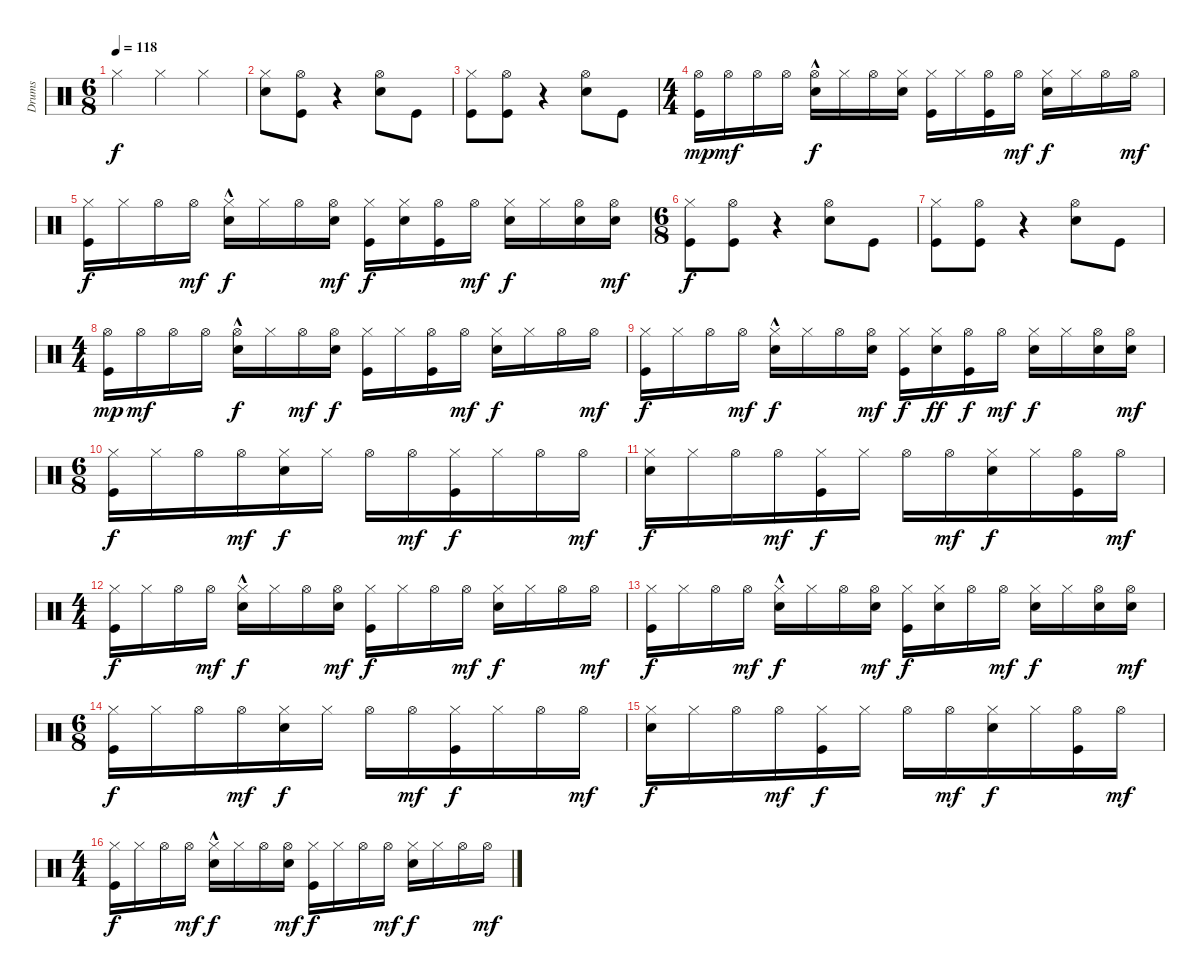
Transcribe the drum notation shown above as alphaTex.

\track ("Drums" "Drums") {instrument percussion}
\staff {score}
\articulation defaults
\ts (6 8)
\tempo 118
\clef neutral
\ks c "Hi-Hat (closed)".4{dy f} "Hi-Hat (closed)".4 "Hi-Hat (closed)".4
|
("Electric Snare (hit)" "Hi-Hat (closed)").8 ("Hi-Hat (open)" "Kick (hit)").8 r.4 ("Hi-Hat (open)" "Electric Snare (hit)").8 "Kick (hit)".8 |
("Hi-Hat (closed)" "Kick (hit)").8 ("Hi-Hat (open)" "Kick (hit)").8 r.4 ("Electric Snare (hit)" "Hi-Hat (open)").8 "Kick (hit)".8 |
\ts (4 4)
("Kick (hit)" "Hi-Hat (open)").16{dy mp} "Hi-Hat (open)".16{dy mf} "Hi-Hat (open)".16 "Hi-Hat (open)".16 ("Electric Snare (hit)"{hac} "Hi-Hat (open)").16{dy f} "Hi-Hat (closed)".16 "Hi-Hat (open)".16 ("Electric Snare (hit)" "Hi-Hat (closed)").16 ("Hi-Hat (closed)" "Kick (hit)").16 "Hi-Hat (closed)".16 ("Hi-Hat (open)" "Kick (hit)").16 "Hi-Hat (open)".16{dy mf} ("Electric Snare (hit)" "Hi-Hat (closed)").16{dy f} "Hi-Hat (closed)".16 "Hi-Hat (open)".16 "Hi-Hat (open)".16{dy mf} |
("Hi-Hat (closed)" "Kick (hit)").16{dy f} "Hi-Hat (closed)".16 "Hi-Hat (open)".16 "Hi-Hat (open)".16{dy mf} ("Hi-Hat (closed)" "Electric Snare (hit)"{hac}).16{dy f} "Hi-Hat (closed)".16 "Hi-Hat (open)".16 ("Electric Snare (hit)" "Hi-Hat (open)").16{dy mf} ("Hi-Hat (closed)" "Kick (hit)").16{dy f} ("Electric Snare (hit)" "Hi-Hat (closed)").16 ("Hi-Hat (open)" "Kick (hit)").16 "Hi-Hat (open)".16{dy mf} ("Electric Snare (hit)" "Hi-Hat (closed)").16{dy f} "Hi-Hat (closed)".16 ("Hi-Hat (open)" "Electric Snare (hit)").16 ("Hi-Hat (open)" "Electric Snare (hit)").16{dy mf} |
\ts (6 8)
("Hi-Hat (closed)" "Kick (hit)").8{dy f} ("Hi-Hat (open)" "Kick (hit)").8 r.4 ("Hi-Hat (open)" "Electric Snare (hit)").8 "Kick (hit)".8 |
("Hi-Hat (closed)" "Kick (hit)").8 ("Hi-Hat (open)" "Kick (hit)").8 r.4 ("Electric Snare (hit)" "Hi-Hat (open)").8 "Kick (hit)".8 |
\ts (4 4)
("Kick (hit)" "Hi-Hat (open)").16{dy mp} "Hi-Hat (open)".16{dy mf} "Hi-Hat (open)".16 "Hi-Hat (open)".16 ("Electric Snare (hit)"{hac} "Hi-Hat (open)").16{dy f} "Hi-Hat (closed)".16 "Hi-Hat (open)".16{dy mf} ("Electric Snare (hit)" "Hi-Hat (open)").16{dy f} ("Hi-Hat (closed)" "Kick (hit)").16 "Hi-Hat (closed)".16 ("Hi-Hat (open)" "Kick (hit)").16 "Hi-Hat (open)".16{dy mf} ("Electric Snare (hit)" "Hi-Hat (closed)").16{dy f} "Hi-Hat (closed)".16 "Hi-Hat (open)".16 "Hi-Hat (open)".16{dy mf} |
("Hi-Hat (closed)" "Kick (hit)").16{dy f} "Hi-Hat (closed)".16 "Hi-Hat (open)".16 "Hi-Hat (open)".16{dy mf} ("Hi-Hat (closed)" "Electric Snare (hit)"{hac}).16{dy f} "Hi-Hat (closed)".16 "Hi-Hat (open)".16 ("Electric Snare (hit)" "Hi-Hat (open)").16{dy mf} ("Hi-Hat (closed)" "Kick (hit)").16{dy f} ("Electric Snare (hit)" "Hi-Hat (closed)").16{dy ff} ("Hi-Hat (open)" "Kick (hit)").16{dy f} "Hi-Hat (open)".16{dy mf} ("Electric Snare (hit)" "Hi-Hat (closed)").16{dy f} "Hi-Hat (closed)".16 ("Hi-Hat (open)" "Electric Snare (hit)").16 ("Hi-Hat (open)" "Electric Snare (hit)").16{dy mf} |
\ts (6 8)
("Hi-Hat (closed)" "Kick (hit)").16{dy f} "Hi-Hat (closed)".16 "Hi-Hat (open)".16 "Hi-Hat (open)".16{dy mf} ("Electric Snare (hit)" "Hi-Hat (closed)").16{dy f} "Hi-Hat (closed)".16 "Hi-Hat (open)".16 "Hi-Hat (open)".16{dy mf} ("Kick (hit)" "Hi-Hat (closed)").16{dy f} "Hi-Hat (closed)".16 "Hi-Hat (open)".16 "Hi-Hat (open)".16{dy mf} |
("Electric Snare (hit)" "Hi-Hat (closed)").16{dy f} "Hi-Hat (closed)".16 "Hi-Hat (open)".16 "Hi-Hat (open)".16{dy mf} ("Kick (hit)" "Hi-Hat (closed)").16{dy f} "Hi-Hat (closed)".16 "Hi-Hat (open)".16 "Hi-Hat (open)".16{dy mf} ("Electric Snare (hit)" "Hi-Hat (closed)").16{dy f} "Hi-Hat (closed)".16 ("Kick (hit)" "Hi-Hat (open)").16 "Hi-Hat (open)".16{dy mf} |
\ts (4 4)
("Kick (hit)" "Hi-Hat (closed)").16{dy f} "Hi-Hat (closed)".16 "Hi-Hat (open)".16 "Hi-Hat (open)".16{dy mf} ("Electric Snare (hit)"{hac} "Hi-Hat (closed)").16{dy f} "Hi-Hat (closed)".16 "Hi-Hat (open)".16 ("Hi-Hat (open)" "Electric Snare (hit)").16{dy mf} ("Hi-Hat (closed)" "Kick (hit)").16{dy f} "Hi-Hat (closed)".16 "Hi-Hat (open)".16 "Hi-Hat (open)".16{dy mf} ("Electric Snare (hit)" "Hi-Hat (closed)").16{dy f} "Hi-Hat (closed)".16 "Hi-Hat (open)".16 "Hi-Hat (open)".16{dy mf} |
("Kick (hit)" "Hi-Hat (closed)").16{dy f} "Hi-Hat (closed)".16 "Hi-Hat (open)".16 "Hi-Hat (open)".16{dy mf} ("Electric Snare (hit)"{hac} "Hi-Hat (closed)").16{dy f} "Hi-Hat (closed)".16 "Hi-Hat (open)".16 ("Hi-Hat (open)" "Electric Snare (hit)").16{dy mf} ("Hi-Hat (closed)" "Kick (hit)").16{dy f} ("Electric Snare (hit)" "Hi-Hat (closed)").16 "Hi-Hat (open)".16 "Hi-Hat (open)".16{dy mf} ("Electric Snare (hit)" "Hi-Hat (closed)").16{dy f} "Hi-Hat (closed)".16 ("Electric Snare (hit)" "Hi-Hat (open)").16 ("Electric Snare (hit)" "Hi-Hat (open)").16{dy mf} |
\ts (6 8)
("Hi-Hat (closed)" "Kick (hit)").16{dy f} "Hi-Hat (closed)".16 "Hi-Hat (open)".16 "Hi-Hat (open)".16{dy mf} ("Electric Snare (hit)" "Hi-Hat (closed)").16{dy f} "Hi-Hat (closed)".16 "Hi-Hat (open)".16 "Hi-Hat (open)".16{dy mf} ("Kick (hit)" "Hi-Hat (closed)").16{dy f} "Hi-Hat (closed)".16 "Hi-Hat (open)".16 "Hi-Hat (open)".16{dy mf} |
("Electric Snare (hit)" "Hi-Hat (closed)").16{dy f} "Hi-Hat (closed)".16 "Hi-Hat (open)".16 "Hi-Hat (open)".16{dy mf} ("Kick (hit)" "Hi-Hat (closed)").16{dy f} "Hi-Hat (closed)".16 "Hi-Hat (open)".16 "Hi-Hat (open)".16{dy mf} ("Electric Snare (hit)" "Hi-Hat (closed)").16{dy f} "Hi-Hat (closed)".16 ("Kick (hit)" "Hi-Hat (open)").16 "Hi-Hat (open)".16{dy mf} |
\ts (4 4)
("Kick (hit)" "Hi-Hat (closed)").16{dy f} "Hi-Hat (closed)".16 "Hi-Hat (open)".16 "Hi-Hat (open)".16{dy mf} ("Electric Snare (hit)"{hac} "Hi-Hat (closed)").16{dy f} "Hi-Hat (closed)".16 "Hi-Hat (open)".16 ("Hi-Hat (open)" "Electric Snare (hit)").16{dy mf} ("Hi-Hat (closed)" "Kick (hit)").16{dy f} "Hi-Hat (closed)".16 "Hi-Hat (open)".16 "Hi-Hat (open)".16{dy mf} ("Electric Snare (hit)" "Hi-Hat (closed)").16{dy f} "Hi-Hat (closed)".16 "Hi-Hat (open)".16 "Hi-Hat (open)".16{dy mf}
